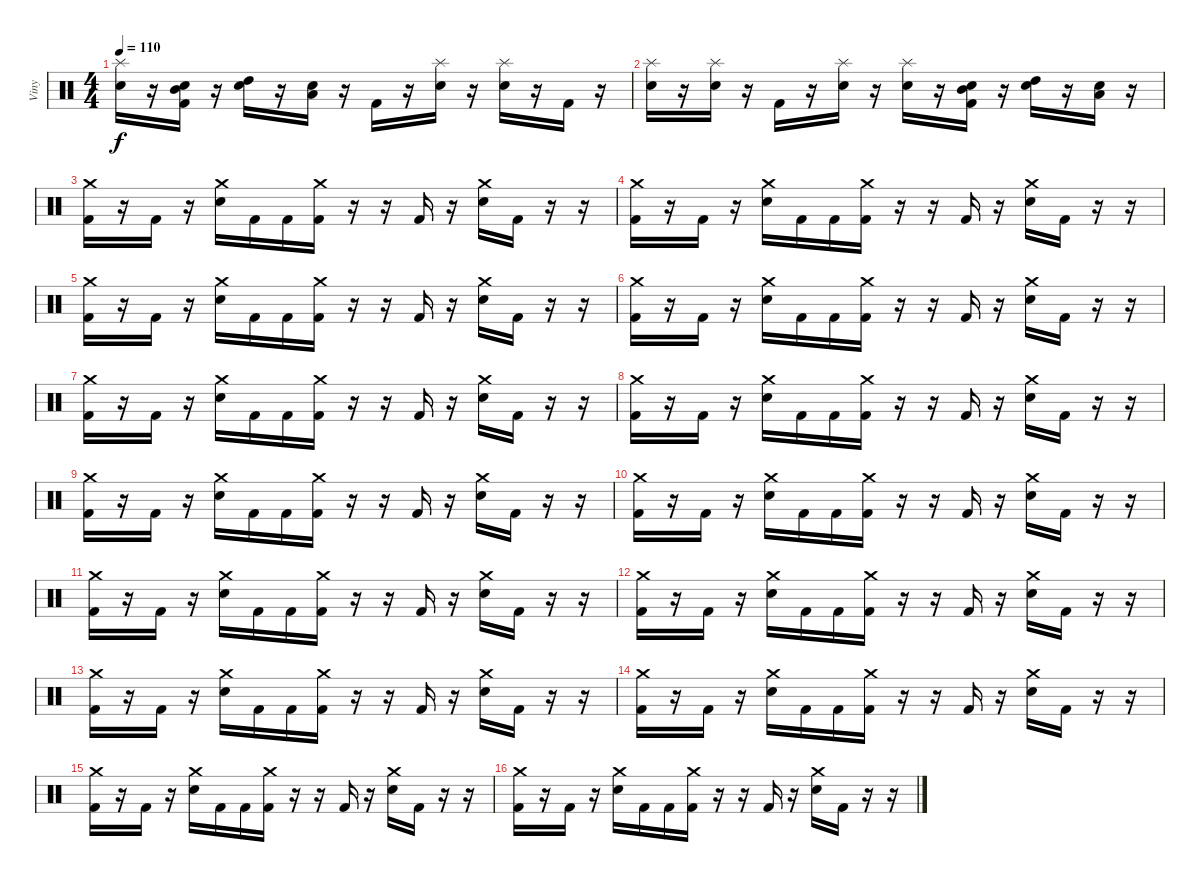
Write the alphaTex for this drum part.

\track ("Viny" "Viny") {instrument percussion}
\staff {score}
\articulation defaults
\ts (4 4)
\tempo 110
\clef neutral
\ks c
("Splash (hit)" "Electric Snare (hit)").16{dy f} r.16 ("Mid Tom (hit)" "Electric Snare (hit)" "Kick (hit) 2").16 r.16 ("High Tom (hit)" "Electric Snare (hit)").16 r.16 ("Low Tom (hit)" "Electric Snare (hit)").16 r.16 "Kick (hit) 2".16 r.16 ("Splash (hit)" "Electric Snare (hit)").16 r.16 ("Splash (hit)" "Electric Snare (hit)").16 r.16 "Kick (hit) 2".16 r.16 |
("Splash (hit)" "Electric Snare (hit)").16 r.16 ("Splash (hit)" "Electric Snare (hit)").16 r.16 "Kick (hit) 2".16 r.16 ("Splash (hit)" "Electric Snare (hit)").16 r.16 ("Splash (hit)" "Electric Snare (hit)").16 r.16 ("Mid Tom (hit)" "Electric Snare (hit)" "Kick (hit) 2").16 r.16 ("High Tom (hit)" "Electric Snare (hit)").16 r.16 ("Low Tom (hit)" "Electric Snare (hit)").16 r.16 |
("Crash medium (hit)" "Kick (hit) 2").16 r.16 "Kick (hit) 2".16 r.16 ("Crash medium (hit)" "Electric Snare (hit)").16 "Kick (hit) 2".16 "Kick (hit) 2".16 ("Crash medium (hit)" "Kick (hit) 2").16 r.16 r.16 "Kick (hit) 2".16 r.16 ("Crash medium (hit)" "Electric Snare (hit)").16 "Kick (hit) 2".16 r.16 r.16 |
("Crash medium (hit)" "Kick (hit) 2").16 r.16 "Kick (hit) 2".16 r.16 ("Crash medium (hit)" "Electric Snare (hit)").16 "Kick (hit) 2".16 "Kick (hit) 2".16 ("Crash medium (hit)" "Kick (hit) 2").16 r.16 r.16 "Kick (hit) 2".16 r.16 ("Crash medium (hit)" "Electric Snare (hit)").16 "Kick (hit) 2".16 r.16 r.16 |
("Crash medium (hit)" "Kick (hit) 2").16 r.16 "Kick (hit) 2".16 r.16 ("Crash medium (hit)" "Electric Snare (hit)").16 "Kick (hit) 2".16 "Kick (hit) 2".16 ("Crash medium (hit)" "Kick (hit) 2").16 r.16 r.16 "Kick (hit) 2".16 r.16 ("Crash medium (hit)" "Electric Snare (hit)").16 "Kick (hit) 2".16 r.16 r.16 |
("Crash medium (hit)" "Kick (hit) 2").16 r.16 "Kick (hit) 2".16 r.16 ("Crash medium (hit)" "Electric Snare (hit)").16 "Kick (hit) 2".16 "Kick (hit) 2".16 ("Crash medium (hit)" "Kick (hit) 2").16 r.16 r.16 "Kick (hit) 2".16 r.16 ("Crash medium (hit)" "Electric Snare (hit)").16 "Kick (hit) 2".16 r.16 r.16 |
("Crash medium (hit)" "Kick (hit) 2").16 r.16 "Kick (hit) 2".16 r.16 ("Crash medium (hit)" "Electric Snare (hit)").16 "Kick (hit) 2".16 "Kick (hit) 2".16 ("Crash medium (hit)" "Kick (hit) 2").16 r.16 r.16 "Kick (hit) 2".16 r.16 ("Crash medium (hit)" "Electric Snare (hit)").16 "Kick (hit) 2".16 r.16 r.16 |
("Crash medium (hit)" "Kick (hit) 2").16 r.16 "Kick (hit) 2".16 r.16 ("Crash medium (hit)" "Electric Snare (hit)").16 "Kick (hit) 2".16 "Kick (hit) 2".16 ("Crash medium (hit)" "Kick (hit) 2").16 r.16 r.16 "Kick (hit) 2".16 r.16 ("Crash medium (hit)" "Electric Snare (hit)").16 "Kick (hit) 2".16 r.16 r.16 |
("Crash medium (hit)" "Kick (hit) 2").16 r.16 "Kick (hit) 2".16 r.16 ("Crash medium (hit)" "Electric Snare (hit)").16 "Kick (hit) 2".16 "Kick (hit) 2".16 ("Crash medium (hit)" "Kick (hit) 2").16 r.16 r.16 "Kick (hit) 2".16 r.16 ("Crash medium (hit)" "Electric Snare (hit)").16 "Kick (hit) 2".16 r.16 r.16 |
("Crash medium (hit)" "Kick (hit) 2").16 r.16 "Kick (hit) 2".16 r.16 ("Crash medium (hit)" "Electric Snare (hit)").16 "Kick (hit) 2".16 "Kick (hit) 2".16 ("Crash medium (hit)" "Kick (hit) 2").16 r.16 r.16 "Kick (hit) 2".16 r.16 ("Crash medium (hit)" "Electric Snare (hit)").16 "Kick (hit) 2".16 r.16 r.16 |
("Crash medium (hit)" "Kick (hit) 2").16 r.16 "Kick (hit) 2".16 r.16 ("Crash medium (hit)" "Electric Snare (hit)").16 "Kick (hit) 2".16 "Kick (hit) 2".16 ("Crash medium (hit)" "Kick (hit) 2").16 r.16 r.16 "Kick (hit) 2".16 r.16 ("Crash medium (hit)" "Electric Snare (hit)").16 "Kick (hit) 2".16 r.16 r.16 |
("Crash medium (hit)" "Kick (hit) 2").16 r.16 "Kick (hit) 2".16 r.16 ("Crash medium (hit)" "Electric Snare (hit)").16 "Kick (hit) 2".16 "Kick (hit) 2".16 ("Crash medium (hit)" "Kick (hit) 2").16 r.16 r.16 "Kick (hit) 2".16 r.16 ("Crash medium (hit)" "Electric Snare (hit)").16 "Kick (hit) 2".16 r.16 r.16 |
("Crash medium (hit)" "Kick (hit) 2").16 r.16 "Kick (hit) 2".16 r.16 ("Crash medium (hit)" "Electric Snare (hit)").16 "Kick (hit) 2".16 "Kick (hit) 2".16 ("Crash medium (hit)" "Kick (hit) 2").16 r.16 r.16 "Kick (hit) 2".16 r.16 ("Crash medium (hit)" "Electric Snare (hit)").16 "Kick (hit) 2".16 r.16 r.16 |
("Crash medium (hit)" "Kick (hit) 2").16 r.16 "Kick (hit) 2".16 r.16 ("Crash medium (hit)" "Electric Snare (hit)").16 "Kick (hit) 2".16 "Kick (hit) 2".16 ("Crash medium (hit)" "Kick (hit) 2").16 r.16 r.16 "Kick (hit) 2".16 r.16 ("Crash medium (hit)" "Electric Snare (hit)").16 "Kick (hit) 2".16 r.16 r.16 |
("Crash medium (hit)" "Kick (hit) 2").16 r.16 "Kick (hit) 2".16 r.16 ("Crash medium (hit)" "Electric Snare (hit)").16 "Kick (hit) 2".16 "Kick (hit) 2".16 ("Crash medium (hit)" "Kick (hit) 2").16 r.16 r.16 "Kick (hit) 2".16 r.16 ("Crash medium (hit)" "Electric Snare (hit)").16 "Kick (hit) 2".16 r.16 r.16 |
("Crash medium (hit)" "Kick (hit) 2").16 r.16 "Kick (hit) 2".16 r.16 ("Crash medium (hit)" "Electric Snare (hit)").16 "Kick (hit) 2".16 "Kick (hit) 2".16 ("Crash medium (hit)" "Kick (hit) 2").16 r.16 r.16 "Kick (hit) 2".16 r.16 ("Crash medium (hit)" "Electric Snare (hit)").16 "Kick (hit) 2".16 r.16 r.16
